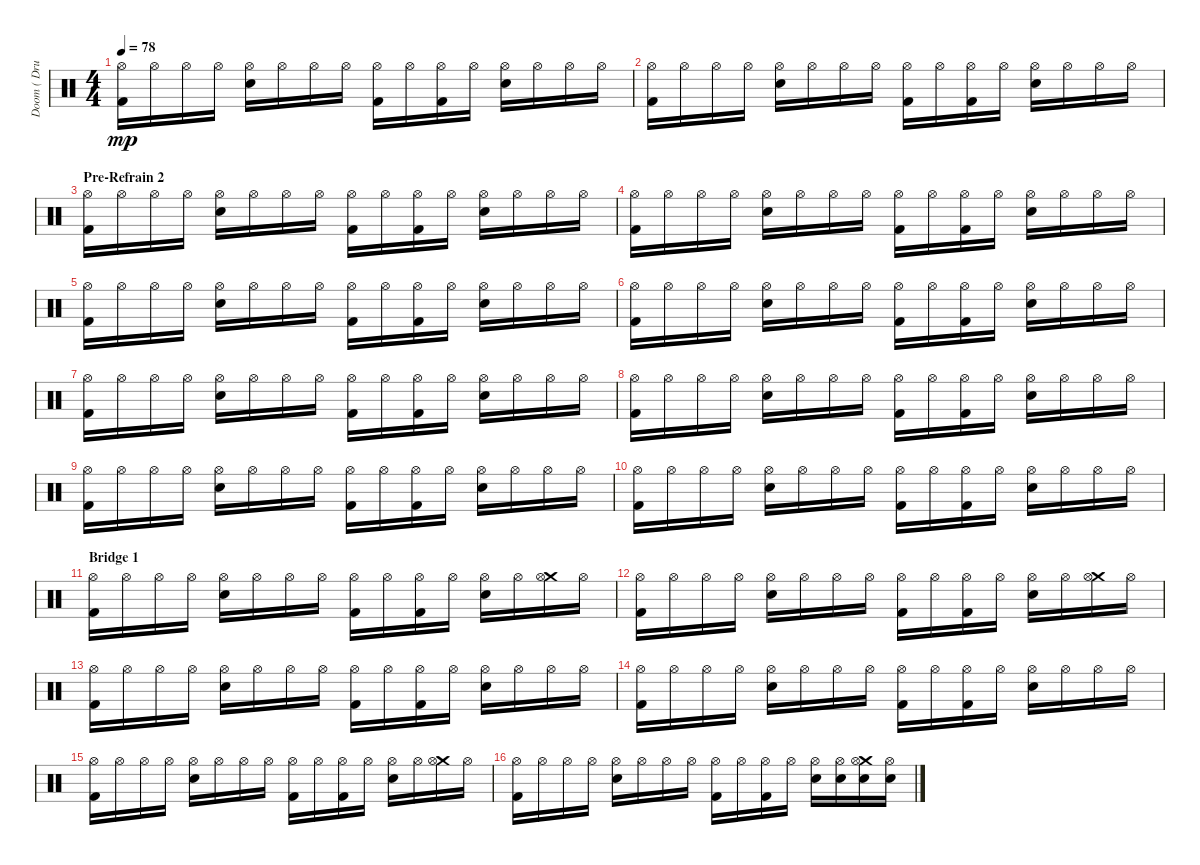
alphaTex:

\track ("Doom ( Drums )" "Doom ( Dru") {instrument percussion}
\staff {score}
\articulation defaults
\ts (4 4)
\tempo 78
\clef neutral
\ks c
("Kick (hit) 2" "Hi-Hat (open)").16{dy mp} "Hi-Hat (open)".16 "Hi-Hat (open)".16 "Hi-Hat (open)".16 ("Electric Snare (hit)" "Hi-Hat (open)").16 "Hi-Hat (open)".16 "Hi-Hat (open)".16 "Hi-Hat (open)".16 ("Kick (hit) 2" "Hi-Hat (open)").16 "Hi-Hat (open)".16 ("Kick (hit) 2" "Hi-Hat (open)").16 "Hi-Hat (open)".16 ("Electric Snare (hit)" "Hi-Hat (open)").16 "Hi-Hat (open)".16 "Hi-Hat (open)".16 "Hi-Hat (open)".16 |
("Kick (hit) 2" "Hi-Hat (open)").16 "Hi-Hat (open)".16 "Hi-Hat (open)".16 "Hi-Hat (open)".16 ("Electric Snare (hit)" "Hi-Hat (open)").16 "Hi-Hat (open)".16 "Hi-Hat (open)".16 "Hi-Hat (open)".16 ("Kick (hit) 2" "Hi-Hat (open)").16 "Hi-Hat (open)".16 ("Kick (hit) 2" "Hi-Hat (open)").16 "Hi-Hat (open)".16 ("Electric Snare (hit)" "Hi-Hat (open)").16 "Hi-Hat (open)".16 "Hi-Hat (open)".16 "Hi-Hat (open)".16 |
\section ("" "Pre-Refrain 2")
("Kick (hit) 2" "Hi-Hat (open)").16 "Hi-Hat (open)".16 "Hi-Hat (open)".16 "Hi-Hat (open)".16 ("Electric Snare (hit)" "Hi-Hat (open)").16 "Hi-Hat (open)".16 "Hi-Hat (open)".16 "Hi-Hat (open)".16 ("Kick (hit) 2" "Hi-Hat (open)").16 "Hi-Hat (open)".16 ("Kick (hit) 2" "Hi-Hat (open)").16 "Hi-Hat (open)".16 ("Electric Snare (hit)" "Hi-Hat (open)").16 "Hi-Hat (open)".16 "Hi-Hat (open)".16 "Hi-Hat (open)".16 |
("Kick (hit) 2" "Hi-Hat (open)").16 "Hi-Hat (open)".16 "Hi-Hat (open)".16 "Hi-Hat (open)".16 ("Electric Snare (hit)" "Hi-Hat (open)").16 "Hi-Hat (open)".16 "Hi-Hat (open)".16 "Hi-Hat (open)".16 ("Kick (hit) 2" "Hi-Hat (open)").16 "Hi-Hat (open)".16 ("Kick (hit) 2" "Hi-Hat (open)").16 "Hi-Hat (open)".16 ("Electric Snare (hit)" "Hi-Hat (open)").16 "Hi-Hat (open)".16 "Hi-Hat (open)".16 "Hi-Hat (open)".16 |
("Kick (hit) 2" "Hi-Hat (open)").16 "Hi-Hat (open)".16 "Hi-Hat (open)".16 "Hi-Hat (open)".16 ("Electric Snare (hit)" "Hi-Hat (open)").16 "Hi-Hat (open)".16 "Hi-Hat (open)".16 "Hi-Hat (open)".16 ("Kick (hit) 2" "Hi-Hat (open)").16 "Hi-Hat (open)".16 ("Kick (hit) 2" "Hi-Hat (open)").16 "Hi-Hat (open)".16 ("Electric Snare (hit)" "Hi-Hat (open)").16 "Hi-Hat (open)".16 "Hi-Hat (open)".16 "Hi-Hat (open)".16 |
("Kick (hit) 2" "Hi-Hat (open)").16 "Hi-Hat (open)".16 "Hi-Hat (open)".16 "Hi-Hat (open)".16 ("Electric Snare (hit)" "Hi-Hat (open)").16 "Hi-Hat (open)".16 "Hi-Hat (open)".16 "Hi-Hat (open)".16 ("Kick (hit) 2" "Hi-Hat (open)").16 "Hi-Hat (open)".16 ("Kick (hit) 2" "Hi-Hat (open)").16 "Hi-Hat (open)".16 ("Electric Snare (hit)" "Hi-Hat (open)").16 "Hi-Hat (open)".16 "Hi-Hat (open)".16 "Hi-Hat (open)".16 |
("Kick (hit) 2" "Hi-Hat (open)").16 "Hi-Hat (open)".16 "Hi-Hat (open)".16 "Hi-Hat (open)".16 ("Electric Snare (hit)" "Hi-Hat (open)").16 "Hi-Hat (open)".16 "Hi-Hat (open)".16 "Hi-Hat (open)".16 ("Kick (hit) 2" "Hi-Hat (open)").16 "Hi-Hat (open)".16 ("Kick (hit) 2" "Hi-Hat (open)").16 "Hi-Hat (open)".16 ("Electric Snare (hit)" "Hi-Hat (open)").16 "Hi-Hat (open)".16 "Hi-Hat (open)".16 "Hi-Hat (open)".16 |
("Kick (hit) 2" "Hi-Hat (open)").16 "Hi-Hat (open)".16 "Hi-Hat (open)".16 "Hi-Hat (open)".16 ("Electric Snare (hit)" "Hi-Hat (open)").16 "Hi-Hat (open)".16 "Hi-Hat (open)".16 "Hi-Hat (open)".16 ("Kick (hit) 2" "Hi-Hat (open)").16 "Hi-Hat (open)".16 ("Kick (hit) 2" "Hi-Hat (open)").16 "Hi-Hat (open)".16 ("Electric Snare (hit)" "Hi-Hat (open)").16 "Hi-Hat (open)".16 "Hi-Hat (open)".16 "Hi-Hat (open)".16 |
("Kick (hit) 2" "Hi-Hat (open)").16 "Hi-Hat (open)".16 "Hi-Hat (open)".16 "Hi-Hat (open)".16 ("Electric Snare (hit)" "Hi-Hat (open)").16 "Hi-Hat (open)".16 "Hi-Hat (open)".16 "Hi-Hat (open)".16 ("Kick (hit) 2" "Hi-Hat (open)").16 "Hi-Hat (open)".16 ("Kick (hit) 2" "Hi-Hat (open)").16 "Hi-Hat (open)".16 ("Electric Snare (hit)" "Hi-Hat (open)").16 "Hi-Hat (open)".16 "Hi-Hat (open)".16 "Hi-Hat (open)".16 |
("Kick (hit) 2" "Hi-Hat (open)").16 "Hi-Hat (open)".16 "Hi-Hat (open)".16 "Hi-Hat (open)".16 ("Electric Snare (hit)" "Hi-Hat (open)").16 "Hi-Hat (open)".16 "Hi-Hat (open)".16 "Hi-Hat (open)".16 ("Kick (hit) 2" "Hi-Hat (open)").16 "Hi-Hat (open)".16 ("Kick (hit) 2" "Hi-Hat (open)").16 "Hi-Hat (open)".16 ("Electric Snare (hit)" "Hi-Hat (open)").16 "Hi-Hat (open)".16 "Hi-Hat (open)".16 "Hi-Hat (open)".16 |
\section ("" "Bridge 1")
("Kick (hit) 2" "Hi-Hat (open)").16 "Hi-Hat (open)".16 "Hi-Hat (open)".16 "Hi-Hat (open)".16 ("Electric Snare (hit)" "Hi-Hat (open)").16 "Hi-Hat (open)".16 "Hi-Hat (open)".16 "Hi-Hat (open)".16 ("Kick (hit) 2" "Hi-Hat (open)").16 "Hi-Hat (open)".16 ("Kick (hit) 2" "Hi-Hat (open)").16 "Hi-Hat (open)".16 ("Electric Snare (hit)" "Hi-Hat (open)").16 "Hi-Hat (open)".16 ("Crash medium (hit)" "Hi-Hat (open)").16 "Hi-Hat (open)".16 |
("Kick (hit) 2" "Hi-Hat (open)").16 "Hi-Hat (open)".16 "Hi-Hat (open)".16 "Hi-Hat (open)".16 ("Electric Snare (hit)" "Hi-Hat (open)").16 "Hi-Hat (open)".16 "Hi-Hat (open)".16 "Hi-Hat (open)".16 ("Kick (hit) 2" "Hi-Hat (open)").16 "Hi-Hat (open)".16 ("Kick (hit) 2" "Hi-Hat (open)").16 "Hi-Hat (open)".16 ("Electric Snare (hit)" "Hi-Hat (open)").16 "Hi-Hat (open)".16 ("Crash medium (hit)" "Hi-Hat (open)").16 "Hi-Hat (open)".16 |
("Kick (hit) 2" "Hi-Hat (open)").16 "Hi-Hat (open)".16 "Hi-Hat (open)".16 "Hi-Hat (open)".16 ("Electric Snare (hit)" "Hi-Hat (open)").16 "Hi-Hat (open)".16 "Hi-Hat (open)".16 "Hi-Hat (open)".16 ("Kick (hit) 2" "Hi-Hat (open)").16 "Hi-Hat (open)".16 ("Kick (hit) 2" "Hi-Hat (open)").16 "Hi-Hat (open)".16 ("Electric Snare (hit)" "Hi-Hat (open)").16 "Hi-Hat (open)".16 "Hi-Hat (open)".16 "Hi-Hat (open)".16 |
("Kick (hit) 2" "Hi-Hat (open)").16 "Hi-Hat (open)".16 "Hi-Hat (open)".16 "Hi-Hat (open)".16 ("Electric Snare (hit)" "Hi-Hat (open)").16 "Hi-Hat (open)".16 "Hi-Hat (open)".16 "Hi-Hat (open)".16 ("Kick (hit) 2" "Hi-Hat (open)").16 "Hi-Hat (open)".16 ("Kick (hit) 2" "Hi-Hat (open)").16 "Hi-Hat (open)".16 ("Electric Snare (hit)" "Hi-Hat (open)").16 "Hi-Hat (open)".16 "Hi-Hat (open)".16 "Hi-Hat (open)".16 |
("Kick (hit) 2" "Hi-Hat (open)").16 "Hi-Hat (open)".16 "Hi-Hat (open)".16 "Hi-Hat (open)".16 ("Electric Snare (hit)" "Hi-Hat (open)").16 "Hi-Hat (open)".16 "Hi-Hat (open)".16 "Hi-Hat (open)".16 ("Kick (hit) 2" "Hi-Hat (open)").16 "Hi-Hat (open)".16 ("Kick (hit) 2" "Hi-Hat (open)").16 "Hi-Hat (open)".16 ("Electric Snare (hit)" "Hi-Hat (open)").16 "Hi-Hat (open)".16 ("Crash medium (hit)" "Hi-Hat (open)").16 "Hi-Hat (open)".16 |
("Kick (hit) 2" "Hi-Hat (open)").16 "Hi-Hat (open)".16 "Hi-Hat (open)".16 "Hi-Hat (open)".16 ("Electric Snare (hit)" "Hi-Hat (open)").16 "Hi-Hat (open)".16 "Hi-Hat (open)".16 "Hi-Hat (open)".16 ("Kick (hit) 2" "Hi-Hat (open)").16 "Hi-Hat (open)".16 ("Kick (hit) 2" "Hi-Hat (open)").16 "Hi-Hat (open)".16 ("Electric Snare (hit)" "Hi-Hat (open)").16 ("Electric Snare (hit)" "Hi-Hat (open)").16 ("Electric Snare (hit)" "Crash medium (hit)" "Hi-Hat (open)").16 ("Electric Snare (hit)" "Hi-Hat (open)").16
